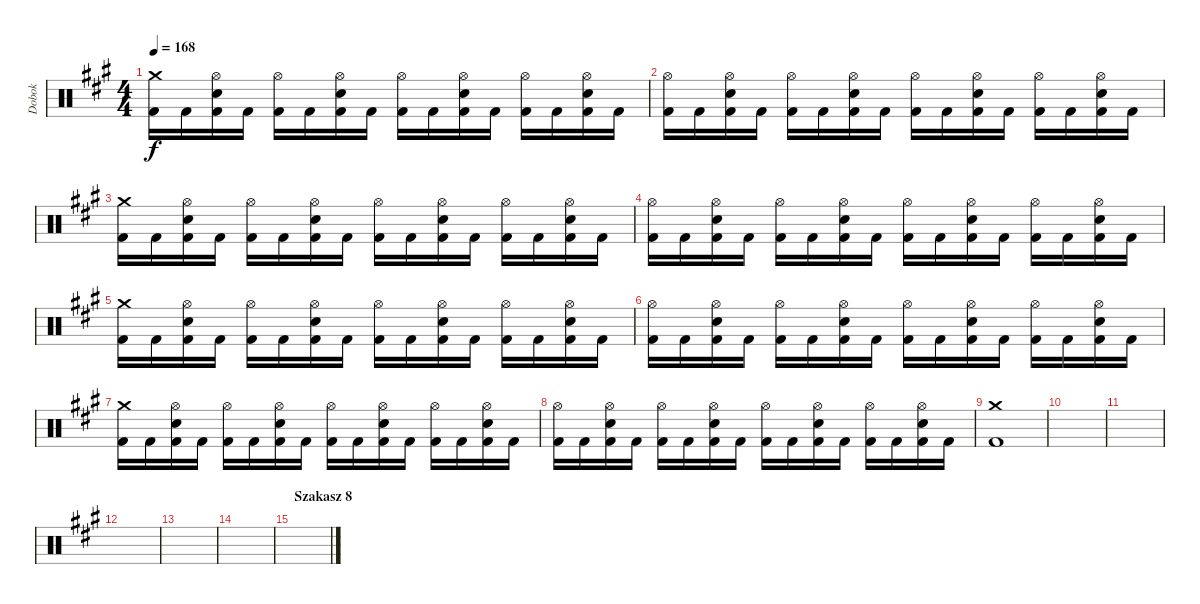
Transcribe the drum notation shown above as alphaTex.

\track ("Dobok" "Dobok") {instrument percussion}
\staff {score}
\articulation defaults
\ts (4 4)
\tempo 168
\clef neutral
\ks f#minor
("Crash medium (hit)" "Kick (hit) 2").16{dy f} "Kick (hit) 2".16 ("Hi-Hat (open)" "Snare (hit) 2" "Kick (hit) 2").16 "Kick (hit) 2".16 ("Hi-Hat (open)" "Kick (hit) 2").16 "Kick (hit) 2".16 ("Hi-Hat (open)" "Snare (hit) 2" "Kick (hit) 2").16 "Kick (hit) 2".16 ("Hi-Hat (open)" "Kick (hit) 2").16 "Kick (hit) 2".16 ("Hi-Hat (open)" "Snare (hit) 2" "Kick (hit) 2").16 "Kick (hit) 2".16 ("Hi-Hat (open)" "Kick (hit) 2").16 "Kick (hit) 2".16 ("Hi-Hat (open)" "Snare (hit) 2" "Kick (hit) 2").16 "Kick (hit) 2".16 |
("Hi-Hat (open)" "Kick (hit) 2").16 "Kick (hit) 2".16 ("Hi-Hat (open)" "Snare (hit) 2" "Kick (hit) 2").16 "Kick (hit) 2".16 ("Hi-Hat (open)" "Kick (hit) 2").16 "Kick (hit) 2".16 ("Hi-Hat (open)" "Snare (hit) 2" "Kick (hit) 2").16 "Kick (hit) 2".16 ("Hi-Hat (open)" "Kick (hit) 2").16 "Kick (hit) 2".16 ("Hi-Hat (open)" "Snare (hit) 2" "Kick (hit) 2").16 "Kick (hit) 2".16 ("Hi-Hat (open)" "Kick (hit) 2").16 "Kick (hit) 2".16 ("Hi-Hat (open)" "Snare (hit) 2" "Kick (hit) 2").16 "Kick (hit) 2".16 |
("Crash medium (hit)" "Kick (hit) 2").16 "Kick (hit) 2".16 ("Hi-Hat (open)" "Snare (hit) 2" "Kick (hit) 2").16 "Kick (hit) 2".16 ("Hi-Hat (open)" "Kick (hit) 2").16 "Kick (hit) 2".16 ("Hi-Hat (open)" "Snare (hit) 2" "Kick (hit) 2").16 "Kick (hit) 2".16 ("Hi-Hat (open)" "Kick (hit) 2").16 "Kick (hit) 2".16 ("Hi-Hat (open)" "Snare (hit) 2" "Kick (hit) 2").16 "Kick (hit) 2".16 ("Hi-Hat (open)" "Kick (hit) 2").16 "Kick (hit) 2".16 ("Hi-Hat (open)" "Snare (hit) 2" "Kick (hit) 2").16 "Kick (hit) 2".16 |
("Hi-Hat (open)" "Kick (hit) 2").16 "Kick (hit) 2".16 ("Hi-Hat (open)" "Snare (hit) 2" "Kick (hit) 2").16 "Kick (hit) 2".16 ("Hi-Hat (open)" "Kick (hit) 2").16 "Kick (hit) 2".16 ("Hi-Hat (open)" "Snare (hit) 2" "Kick (hit) 2").16 "Kick (hit) 2".16 ("Hi-Hat (open)" "Kick (hit) 2").16 "Kick (hit) 2".16 ("Hi-Hat (open)" "Snare (hit) 2" "Kick (hit) 2").16 "Kick (hit) 2".16 ("Hi-Hat (open)" "Kick (hit) 2").16 "Kick (hit) 2".16 ("Hi-Hat (open)" "Snare (hit) 2" "Kick (hit) 2").16 "Kick (hit) 2".16 |
("Crash medium (hit)" "Kick (hit) 2").16 "Kick (hit) 2".16 ("Hi-Hat (open)" "Snare (hit) 2" "Kick (hit) 2").16 "Kick (hit) 2".16 ("Hi-Hat (open)" "Kick (hit) 2").16 "Kick (hit) 2".16 ("Hi-Hat (open)" "Snare (hit) 2" "Kick (hit) 2").16 "Kick (hit) 2".16 ("Hi-Hat (open)" "Kick (hit) 2").16 "Kick (hit) 2".16 ("Hi-Hat (open)" "Snare (hit) 2" "Kick (hit) 2").16 "Kick (hit) 2".16 ("Hi-Hat (open)" "Kick (hit) 2").16 "Kick (hit) 2".16 ("Hi-Hat (open)" "Snare (hit) 2" "Kick (hit) 2").16 "Kick (hit) 2".16 |
("Hi-Hat (open)" "Kick (hit) 2").16 "Kick (hit) 2".16 ("Hi-Hat (open)" "Snare (hit) 2" "Kick (hit) 2").16 "Kick (hit) 2".16 ("Hi-Hat (open)" "Kick (hit) 2").16 "Kick (hit) 2".16 ("Hi-Hat (open)" "Snare (hit) 2" "Kick (hit) 2").16 "Kick (hit) 2".16 ("Hi-Hat (open)" "Kick (hit) 2").16 "Kick (hit) 2".16 ("Hi-Hat (open)" "Snare (hit) 2" "Kick (hit) 2").16 "Kick (hit) 2".16 ("Hi-Hat (open)" "Kick (hit) 2").16 "Kick (hit) 2".16 ("Hi-Hat (open)" "Snare (hit) 2" "Kick (hit) 2").16 "Kick (hit) 2".16 |
("Crash medium (hit)" "Kick (hit) 2").16 "Kick (hit) 2".16 ("Hi-Hat (open)" "Snare (hit) 2" "Kick (hit) 2").16 "Kick (hit) 2".16 ("Hi-Hat (open)" "Kick (hit) 2").16 "Kick (hit) 2".16 ("Hi-Hat (open)" "Snare (hit) 2" "Kick (hit) 2").16 "Kick (hit) 2".16 ("Hi-Hat (open)" "Kick (hit) 2").16 "Kick (hit) 2".16 ("Hi-Hat (open)" "Snare (hit) 2" "Kick (hit) 2").16 "Kick (hit) 2".16 ("Hi-Hat (open)" "Kick (hit) 2").16 "Kick (hit) 2".16 ("Hi-Hat (open)" "Snare (hit) 2" "Kick (hit) 2").16 "Kick (hit) 2".16 |
("Hi-Hat (open)" "Kick (hit) 2").16 "Kick (hit) 2".16 ("Hi-Hat (open)" "Snare (hit) 2" "Kick (hit) 2").16 "Kick (hit) 2".16 ("Hi-Hat (open)" "Kick (hit) 2").16 "Kick (hit) 2".16 ("Hi-Hat (open)" "Snare (hit) 2" "Kick (hit) 2").16 "Kick (hit) 2".16 ("Hi-Hat (open)" "Kick (hit) 2").16 "Kick (hit) 2".16 ("Hi-Hat (open)" "Snare (hit) 2" "Kick (hit) 2").16 "Kick (hit) 2".16 ("Hi-Hat (open)" "Kick (hit) 2").16 "Kick (hit) 2".16 ("Hi-Hat (open)" "Snare (hit) 2" "Kick (hit) 2").16 "Kick (hit) 2".16 |
("Crash medium (hit)" "Kick (hit) 2").1 |
|
|
|
|
|
\section ("" "Szakasz 8")
